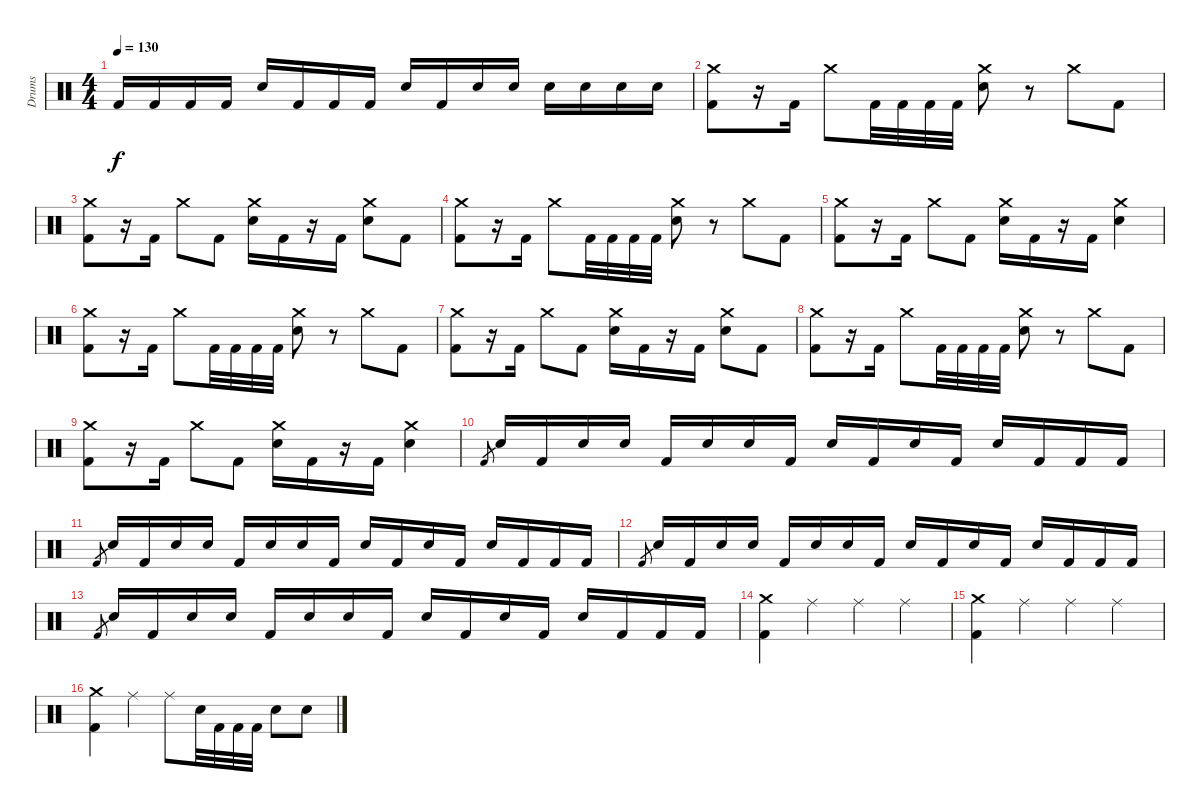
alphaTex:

\track ("Drums" "Drums") {instrument percussion}
\staff {score}
\articulation defaults
\ts (4 4)
\tempo 130
\clef neutral
\ks c "Kick (hit) 2".16{dy f} "Kick (hit) 2".16 "Kick (hit) 2".16 "Kick (hit) 2".16 "Snare (hit) 2".16 "Kick (hit) 2".16 "Kick (hit) 2".16 "Kick (hit) 2".16 "Snare (hit) 2".16 "Kick (hit) 2".16 "Snare (hit) 2".16 "Snare (hit) 2".16 "Snare (hit) 2".16 "Snare (hit) 2".16 "Snare (hit) 2".16 "Snare (hit) 2".16
|
("Crash medium (hit)" "Kick (hit) 2").8 r.16 "Kick (hit) 2".16 "Crash medium (hit)".8 "Kick (hit) 2".32 "Kick (hit) 2".32 "Kick (hit) 2".32 "Kick (hit) 2".32 ("Crash medium (hit)" "Snare (hit) 2").8 r.8 "Crash medium (hit)".8 "Kick (hit) 2".8 |
("Crash medium (hit)" "Kick (hit) 2").8 r.16 "Kick (hit) 2".16 "Crash medium (hit)".8 "Kick (hit) 2".8 ("Crash medium (hit)" "Snare (hit) 2").16 "Kick (hit) 2".16 r.16 "Kick (hit) 2".16 ("Crash medium (hit)" "Snare (hit) 2").8 "Kick (hit) 2".8 |
("Crash medium (hit)" "Kick (hit) 2").8 r.16 "Kick (hit) 2".16 "Crash medium (hit)".8 "Kick (hit) 2".32 "Kick (hit) 2".32 "Kick (hit) 2".32 "Kick (hit) 2".32 ("Crash medium (hit)" "Snare (hit) 2").8 r.8 "Crash medium (hit)".8 "Kick (hit) 2".8 |
("Crash medium (hit)" "Kick (hit) 2").8 r.16 "Kick (hit) 2".16 "Crash medium (hit)".8 "Kick (hit) 2".8 ("Crash medium (hit)" "Snare (hit) 2").16 "Kick (hit) 2".16 r.16 "Kick (hit) 2".16 ("Crash medium (hit)" "Snare (hit) 2").4 |
("Crash medium (hit)" "Kick (hit) 2").8 r.16 "Kick (hit) 2".16 "Crash medium (hit)".8 "Kick (hit) 2".32 "Kick (hit) 2".32 "Kick (hit) 2".32 "Kick (hit) 2".32 ("Crash medium (hit)" "Snare (hit) 2").8 r.8 "Crash medium (hit)".8 "Kick (hit) 2".8 |
("Crash medium (hit)" "Kick (hit) 2").8 r.16 "Kick (hit) 2".16 "Crash medium (hit)".8 "Kick (hit) 2".8 ("Crash medium (hit)" "Snare (hit) 2").16 "Kick (hit) 2".16 r.16 "Kick (hit) 2".16 ("Crash medium (hit)" "Snare (hit) 2").8 "Kick (hit) 2".8 |
("Crash medium (hit)" "Kick (hit) 2").8 r.16 "Kick (hit) 2".16 "Crash medium (hit)".8 "Kick (hit) 2".32 "Kick (hit) 2".32 "Kick (hit) 2".32 "Kick (hit) 2".32 ("Crash medium (hit)" "Snare (hit) 2").8 r.8 "Crash medium (hit)".8 "Kick (hit) 2".8 |
("Crash medium (hit)" "Kick (hit) 2").8 r.16 "Kick (hit) 2".16 "Crash medium (hit)".8 "Kick (hit) 2".8 ("Crash medium (hit)" "Snare (hit) 2").16 "Kick (hit) 2".16 r.16 "Kick (hit) 2".16 ("Crash medium (hit)" "Snare (hit) 2").4 |
"Kick (hit) 2".8{gr} "Snare (hit) 2".16 "Kick (hit) 2".16 "Snare (hit) 2".16 "Snare (hit) 2".16 "Kick (hit) 2".16 "Snare (hit) 2".16 "Snare (hit) 2".16 "Kick (hit) 2".16 "Snare (hit) 2".16 "Kick (hit) 2".16 "Snare (hit) 2".16 "Kick (hit) 2".16 "Snare (hit) 2".16 "Kick (hit) 2".16 "Kick (hit) 2".16 "Kick (hit) 2".16 |
"Kick (hit) 2".8{gr} "Snare (hit) 2".16 "Kick (hit) 2".16 "Snare (hit) 2".16 "Snare (hit) 2".16 "Kick (hit) 2".16 "Snare (hit) 2".16 "Snare (hit) 2".16 "Kick (hit) 2".16 "Snare (hit) 2".16 "Kick (hit) 2".16 "Snare (hit) 2".16 "Kick (hit) 2".16 "Snare (hit) 2".16 "Kick (hit) 2".16 "Kick (hit) 2".16 "Kick (hit) 2".16 |
"Kick (hit) 2".8{gr} "Snare (hit) 2".16 "Kick (hit) 2".16 "Snare (hit) 2".16 "Snare (hit) 2".16 "Kick (hit) 2".16 "Snare (hit) 2".16 "Snare (hit) 2".16 "Kick (hit) 2".16 "Snare (hit) 2".16 "Kick (hit) 2".16 "Snare (hit) 2".16 "Kick (hit) 2".16 "Snare (hit) 2".16 "Kick (hit) 2".16 "Kick (hit) 2".16 "Kick (hit) 2".16 |
"Kick (hit) 2".8{gr} "Snare (hit) 2".16 "Kick (hit) 2".16 "Snare (hit) 2".16 "Snare (hit) 2".16 "Kick (hit) 2".16 "Snare (hit) 2".16 "Snare (hit) 2".16 "Kick (hit) 2".16 "Snare (hit) 2".16 "Kick (hit) 2".16 "Snare (hit) 2".16 "Kick (hit) 2".16 "Snare (hit) 2".16 "Kick (hit) 2".16 "Kick (hit) 2".16 "Kick (hit) 2".16 |
("Crash medium (hit)" "Kick (hit) 2").4 "Ride (middle)".4 "Ride (middle)".4 "Ride (middle)".4 |
("Crash medium (hit)" "Kick (hit) 2").4 "Ride (middle)".4 "Ride (middle)".4 "Ride (middle)".4 |
("Crash medium (hit)" "Kick (hit) 2").4 "Ride (middle)".4 "Ride (middle)".8 "Snare (hit) 2".32 "Kick (hit) 2".32 "Kick (hit) 2".32 "Kick (hit) 2".32 "Snare (hit) 2".8 "Snare (hit) 2".8
